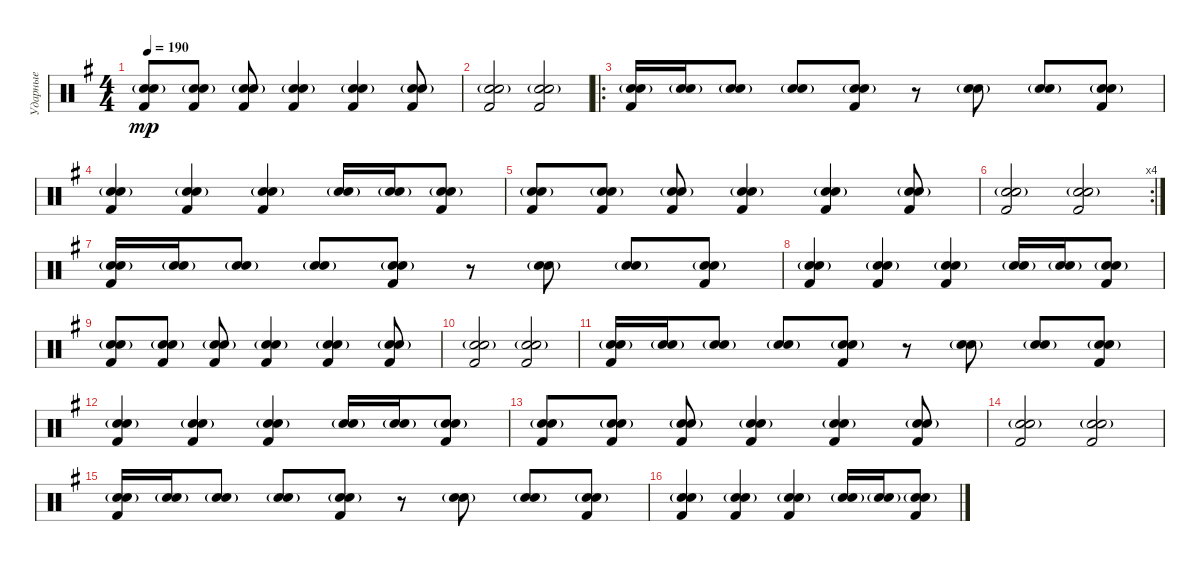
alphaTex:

\track ("Ударные" "Ударные") {instrument percussion}
\staff {score}
\articulation defaults
\ts (4 4)
\tempo 190
\clef neutral
\ks g
("Kick (hit) 2" "Snare (hit) 2"{g} "Electric Snare (hit)").8{dy mp} ("Kick (hit) 2" "Snare (hit) 2"{g} "Electric Snare (hit)").8 ("Kick (hit) 2" "Snare (hit) 2"{g} "Electric Snare (hit)").8 ("Kick (hit) 2" "Snare (hit) 2"{g} "Electric Snare (hit)").4 ("Kick (hit) 2" "Snare (hit) 2"{g} "Electric Snare (hit)").4 ("Kick (hit) 2" "Snare (hit) 2"{g} "Electric Snare (hit)").8 |
("Kick (hit) 2" "Snare (hit) 2"{g} "Electric Snare (hit)").2 ("Kick (hit) 2" "Snare (hit) 2"{g} "Electric Snare (hit)").2 |
\ro
("Kick (hit) 2" "Snare (hit) 2"{g} "Electric Snare (hit)").16 ("Snare (hit) 2"{g} "Electric Snare (hit)"{g}).16 ("Snare (hit) 2"{g} "Electric Snare (hit)"{g}).8 ("Snare (hit) 2"{g} "Electric Snare (hit)").8 ("Kick (hit) 2" "Snare (hit) 2"{g} "Electric Snare (hit)").8 r.8 ("Snare (hit) 2"{g} "Electric Snare (hit)").8 ("Snare (hit) 2"{g} "Electric Snare (hit)"{g}).8 ("Kick (hit) 2" "Snare (hit) 2"{g} "Electric Snare (hit)").8 |
("Kick (hit) 2" "Snare (hit) 2"{g} "Electric Snare (hit)").4 ("Kick (hit) 2" "Snare (hit) 2"{g} "Electric Snare (hit)").4 ("Kick (hit) 2" "Snare (hit) 2"{g} "Electric Snare (hit)").4 ("Snare (hit) 2"{g} "Electric Snare (hit)"{g}).16 ("Snare (hit) 2"{g} "Electric Snare (hit)"{g}).16 ("Kick (hit) 2" "Snare (hit) 2"{g} "Electric Snare (hit)").8 |
("Kick (hit) 2" "Snare (hit) 2"{g} "Electric Snare (hit)").8 ("Kick (hit) 2" "Snare (hit) 2"{g} "Electric Snare (hit)").8 ("Kick (hit) 2" "Snare (hit) 2"{g} "Electric Snare (hit)").8 ("Kick (hit) 2" "Snare (hit) 2"{g} "Electric Snare (hit)").4 ("Kick (hit) 2" "Snare (hit) 2"{g} "Electric Snare (hit)").4 ("Kick (hit) 2" "Snare (hit) 2"{g} "Electric Snare (hit)").8 |
\rc 4
("Kick (hit) 2" "Snare (hit) 2"{g} "Electric Snare (hit)").2 ("Kick (hit) 2" "Snare (hit) 2"{g} "Electric Snare (hit)").2 |
("Kick (hit) 2" "Snare (hit) 2"{g} "Electric Snare (hit)").16 ("Snare (hit) 2"{g} "Electric Snare (hit)"{g}).16 ("Snare (hit) 2"{g} "Electric Snare (hit)"{g}).8 ("Snare (hit) 2"{g} "Electric Snare (hit)").8 ("Kick (hit) 2" "Snare (hit) 2"{g} "Electric Snare (hit)").8 r.8 ("Snare (hit) 2"{g} "Electric Snare (hit)").8 ("Snare (hit) 2"{g} "Electric Snare (hit)"{g}).8 ("Kick (hit) 2" "Snare (hit) 2"{g} "Electric Snare (hit)").8 |
("Kick (hit) 2" "Snare (hit) 2"{g} "Electric Snare (hit)").4 ("Kick (hit) 2" "Snare (hit) 2"{g} "Electric Snare (hit)").4 ("Kick (hit) 2" "Snare (hit) 2"{g} "Electric Snare (hit)").4 ("Snare (hit) 2"{g} "Electric Snare (hit)"{g}).16 ("Snare (hit) 2"{g} "Electric Snare (hit)"{g}).16 ("Kick (hit) 2" "Snare (hit) 2"{g} "Electric Snare (hit)").8 |
("Kick (hit) 2" "Snare (hit) 2"{g} "Electric Snare (hit)").8 ("Kick (hit) 2" "Snare (hit) 2"{g} "Electric Snare (hit)").8 ("Kick (hit) 2" "Snare (hit) 2"{g} "Electric Snare (hit)").8 ("Kick (hit) 2" "Snare (hit) 2"{g} "Electric Snare (hit)").4 ("Kick (hit) 2" "Snare (hit) 2"{g} "Electric Snare (hit)").4 ("Kick (hit) 2" "Snare (hit) 2"{g} "Electric Snare (hit)").8 |
("Kick (hit) 2" "Snare (hit) 2"{g} "Electric Snare (hit)").2 ("Kick (hit) 2" "Snare (hit) 2"{g} "Electric Snare (hit)").2 |
("Kick (hit) 2" "Snare (hit) 2"{g} "Electric Snare (hit)").16 ("Snare (hit) 2"{g} "Electric Snare (hit)"{g}).16 ("Snare (hit) 2"{g} "Electric Snare (hit)"{g}).8 ("Snare (hit) 2"{g} "Electric Snare (hit)").8 ("Kick (hit) 2" "Snare (hit) 2"{g} "Electric Snare (hit)").8 r.8 ("Snare (hit) 2"{g} "Electric Snare (hit)").8 ("Snare (hit) 2"{g} "Electric Snare (hit)"{g}).8 ("Kick (hit) 2" "Snare (hit) 2"{g} "Electric Snare (hit)").8 |
("Kick (hit) 2" "Snare (hit) 2"{g} "Electric Snare (hit)").4 ("Kick (hit) 2" "Snare (hit) 2"{g} "Electric Snare (hit)").4 ("Kick (hit) 2" "Snare (hit) 2"{g} "Electric Snare (hit)").4 ("Snare (hit) 2"{g} "Electric Snare (hit)"{g}).16 ("Snare (hit) 2"{g} "Electric Snare (hit)"{g}).16 ("Kick (hit) 2" "Snare (hit) 2"{g} "Electric Snare (hit)").8 |
("Kick (hit) 2" "Snare (hit) 2"{g} "Electric Snare (hit)").8 ("Kick (hit) 2" "Snare (hit) 2"{g} "Electric Snare (hit)").8 ("Kick (hit) 2" "Snare (hit) 2"{g} "Electric Snare (hit)").8 ("Kick (hit) 2" "Snare (hit) 2"{g} "Electric Snare (hit)").4 ("Kick (hit) 2" "Snare (hit) 2"{g} "Electric Snare (hit)").4 ("Kick (hit) 2" "Snare (hit) 2"{g} "Electric Snare (hit)").8 |
("Kick (hit) 2" "Snare (hit) 2"{g} "Electric Snare (hit)").2 ("Kick (hit) 2" "Snare (hit) 2"{g} "Electric Snare (hit)").2 |
("Kick (hit) 2" "Snare (hit) 2"{g} "Electric Snare (hit)").16 ("Snare (hit) 2"{g} "Electric Snare (hit)"{g}).16 ("Snare (hit) 2"{g} "Electric Snare (hit)"{g}).8 ("Snare (hit) 2"{g} "Electric Snare (hit)").8 ("Kick (hit) 2" "Snare (hit) 2"{g} "Electric Snare (hit)").8 r.8 ("Snare (hit) 2"{g} "Electric Snare (hit)").8 ("Snare (hit) 2"{g} "Electric Snare (hit)"{g}).8 ("Kick (hit) 2" "Snare (hit) 2"{g} "Electric Snare (hit)").8 |
("Kick (hit) 2" "Snare (hit) 2"{g} "Electric Snare (hit)").4 ("Kick (hit) 2" "Snare (hit) 2"{g} "Electric Snare (hit)").4 ("Kick (hit) 2" "Snare (hit) 2"{g} "Electric Snare (hit)").4 ("Snare (hit) 2"{g} "Electric Snare (hit)"{g}).16 ("Snare (hit) 2"{g} "Electric Snare (hit)"{g}).16 ("Kick (hit) 2" "Snare (hit) 2"{g} "Electric Snare (hit)").8
